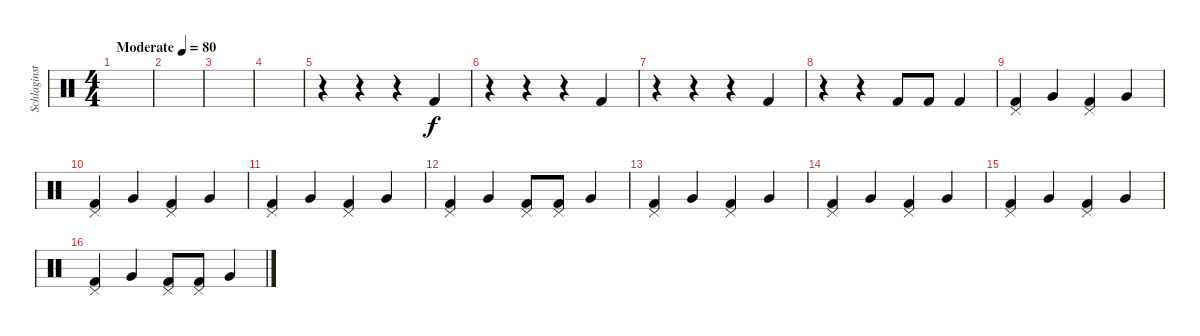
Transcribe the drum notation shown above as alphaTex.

\track ("Schlaginstrumente - Auswahl" "Schlaginst") {instrument percussion}
\staff {score}
\articulation defaults
\ts (4 4)
\tempo (80 "Moderate")
\clef neutral
\ks c
|
|
|
|
r.4 r.4 r.4 "Kick (hit) 2".4 |
r.4 r.4 r.4 "Kick (hit) 2".4 |
r.4 r.4 r.4 "Kick (hit) 2".4 |
r.4 r.4 "Kick (hit) 2".8 "Kick (hit) 2".8 "Kick (hit) 2".4 |
("Kick (hit) 2" "Pedal Hi-Hat (hit)").4 "Very Low Tom (hit)".4 ("Kick (hit) 2" "Pedal Hi-Hat (hit)").4 "Very Low Tom (hit)".4 |
("Kick (hit) 2" "Pedal Hi-Hat (hit)").4 "Very Low Tom (hit)".4 ("Kick (hit) 2" "Pedal Hi-Hat (hit)").4 "Very Low Tom (hit)".4 |
("Kick (hit) 2" "Pedal Hi-Hat (hit)").4 "Very Low Tom (hit)".4 ("Kick (hit) 2" "Pedal Hi-Hat (hit)").4 "Very Low Tom (hit)".4 |
("Kick (hit) 2" "Pedal Hi-Hat (hit)").4 "Very Low Tom (hit)".4 ("Kick (hit) 2" "Pedal Hi-Hat (hit)").8 ("Kick (hit) 2" "Pedal Hi-Hat (hit)").8 "Very Low Tom (hit)".4 |
("Kick (hit) 2" "Pedal Hi-Hat (hit)").4 "Very Low Tom (hit)".4 ("Kick (hit) 2" "Pedal Hi-Hat (hit)").4 "Very Low Tom (hit)".4 |
("Kick (hit) 2" "Pedal Hi-Hat (hit)").4 "Very Low Tom (hit)".4 ("Kick (hit) 2" "Pedal Hi-Hat (hit)").4 "Very Low Tom (hit)".4 |
("Kick (hit) 2" "Pedal Hi-Hat (hit)").4 "Very Low Tom (hit)".4 ("Kick (hit) 2" "Pedal Hi-Hat (hit)").4 "Very Low Tom (hit)".4 |
("Kick (hit) 2" "Pedal Hi-Hat (hit)").4 "Very Low Tom (hit)".4 ("Kick (hit) 2" "Pedal Hi-Hat (hit)").8 ("Kick (hit) 2" "Pedal Hi-Hat (hit)").8 "Very Low Tom (hit)".4
